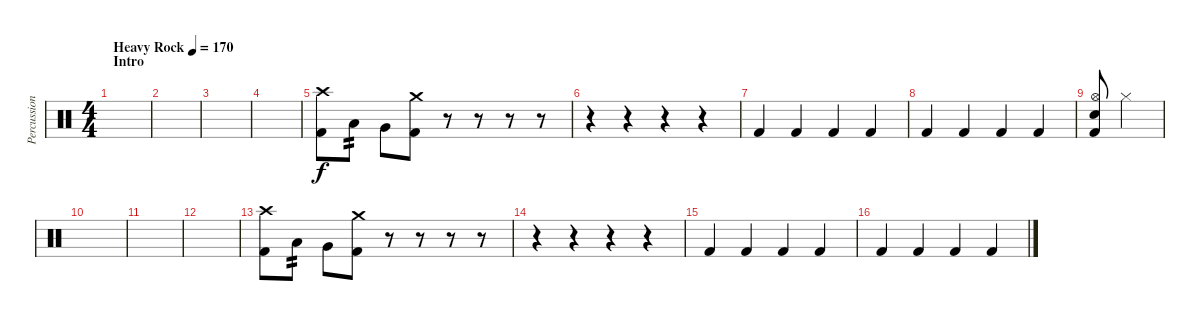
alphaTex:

\track ("Percussion" "Percussion") {instrument percussion}
\staff {score}
\articulation defaults
\ts (4 4)
\section ("" "Intro")
\tempo (170 "Heavy Rock")
\clef neutral
\ks c
|
|
|
|
("Crash high (hit)" "Kick (hit) 2").8 "Low Tom (hit)".8{tp 2} "Very Low Tom (hit)".8 ("Crash medium (hit)" "Kick (hit) 2").8 r.8 r.8 r.8 r.8 |
r.4 r.4 r.4 r.4 |
"Kick (hit) 2".4 "Kick (hit) 2".4 "Kick (hit) 2".4 "Kick (hit) 2".4 |
"Kick (hit) 2".4 "Kick (hit) 2".4 "Kick (hit) 2".4 "Kick (hit) 2".4 |
("Hi-Hat (open)" "Snare (hit) 2" "Kick (hit) 2").8 "Hi-Hat (closed)".4 |
|
|
|
("Crash high (hit)" "Kick (hit) 2").8 "Low Tom (hit)".8{tp 2} "Very Low Tom (hit)".8 ("Crash medium (hit)" "Kick (hit) 2").8 r.8 r.8 r.8 r.8 |
r.4 r.4 r.4 r.4 |
"Kick (hit) 2".4 "Kick (hit) 2".4 "Kick (hit) 2".4 "Kick (hit) 2".4 |
"Kick (hit) 2".4 "Kick (hit) 2".4 "Kick (hit) 2".4 "Kick (hit) 2".4
